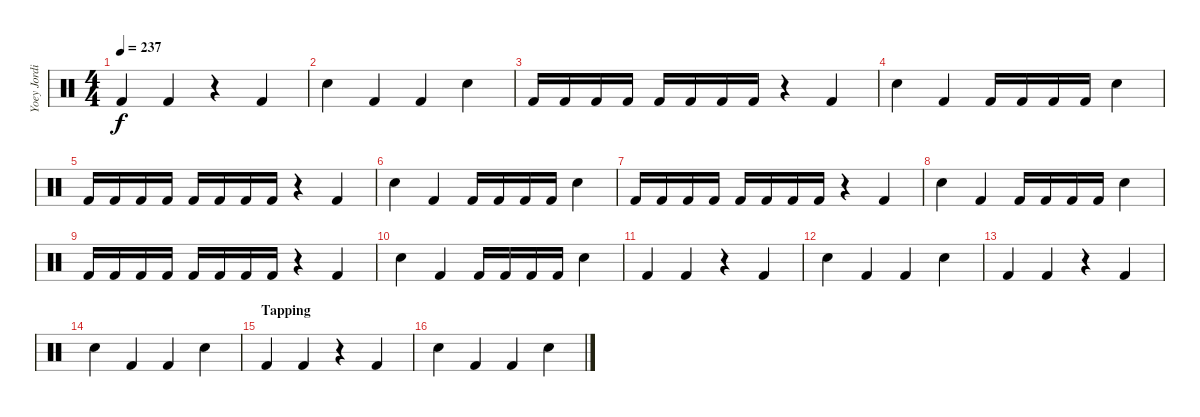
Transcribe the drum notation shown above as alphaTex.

\track ("Yoey Jordison" "Yoey Jordi") {instrument percussion}
\staff {score}
\articulation defaults
\ts (4 4)
\tempo 237
\clef neutral
\ks c "Kick (hit) 2".4{dy f} "Kick (hit) 2".4
r.4 "Kick (hit) 2".4 |
"Electric Snare (hit)".4 "Kick (hit) 2".4 "Kick (hit) 2".4 "Electric Snare (hit)".4 |
"Kick (hit) 2".16 "Kick (hit) 2".16 "Kick (hit) 2".16 "Kick (hit) 2".16 "Kick (hit) 2".16 "Kick (hit) 2".16 "Kick (hit) 2".16 "Kick (hit) 2".16 r.4 "Kick (hit) 2".4 |
"Electric Snare (hit)".4 "Kick (hit) 2".4 "Kick (hit) 2".16 "Kick (hit) 2".16 "Kick (hit) 2".16 "Kick (hit) 2".16 "Electric Snare (hit)".4 |
"Kick (hit) 2".16 "Kick (hit) 2".16 "Kick (hit) 2".16 "Kick (hit) 2".16 "Kick (hit) 2".16 "Kick (hit) 2".16 "Kick (hit) 2".16 "Kick (hit) 2".16 r.4 "Kick (hit) 2".4 |
"Electric Snare (hit)".4 "Kick (hit) 2".4 "Kick (hit) 2".16 "Kick (hit) 2".16 "Kick (hit) 2".16 "Kick (hit) 2".16 "Electric Snare (hit)".4 |
"Kick (hit) 2".16 "Kick (hit) 2".16 "Kick (hit) 2".16 "Kick (hit) 2".16 "Kick (hit) 2".16 "Kick (hit) 2".16 "Kick (hit) 2".16 "Kick (hit) 2".16 r.4 "Kick (hit) 2".4 |
"Electric Snare (hit)".4 "Kick (hit) 2".4 "Kick (hit) 2".16 "Kick (hit) 2".16 "Kick (hit) 2".16 "Kick (hit) 2".16 "Electric Snare (hit)".4 |
"Kick (hit) 2".16 "Kick (hit) 2".16 "Kick (hit) 2".16 "Kick (hit) 2".16 "Kick (hit) 2".16 "Kick (hit) 2".16 "Kick (hit) 2".16 "Kick (hit) 2".16 r.4 "Kick (hit) 2".4 |
"Electric Snare (hit)".4 "Kick (hit) 2".4 "Kick (hit) 2".16 "Kick (hit) 2".16 "Kick (hit) 2".16 "Kick (hit) 2".16 "Electric Snare (hit)".4 |
"Kick (hit) 2".4 "Kick (hit) 2".4 r.4 "Kick (hit) 2".4 |
"Electric Snare (hit)".4 "Kick (hit) 2".4 "Kick (hit) 2".4 "Electric Snare (hit)".4 |
"Kick (hit) 2".4 "Kick (hit) 2".4 r.4 "Kick (hit) 2".4 |
"Electric Snare (hit)".4 "Kick (hit) 2".4 "Kick (hit) 2".4 "Electric Snare (hit)".4 |
\section ("" "Tapping")
"Kick (hit) 2".4 "Kick (hit) 2".4 r.4 "Kick (hit) 2".4 |
"Electric Snare (hit)".4 "Kick (hit) 2".4 "Kick (hit) 2".4 "Electric Snare (hit)".4
